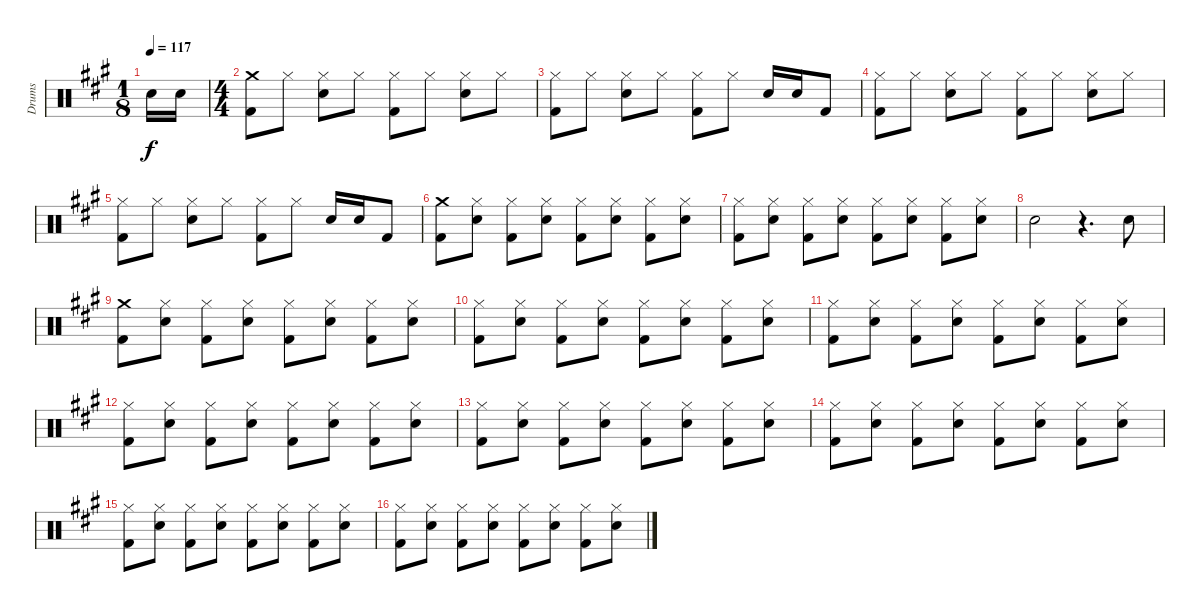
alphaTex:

\track ("Drums" "Drums") {instrument percussion}
\staff {score}
\articulation defaults
\ts (1 8)
\tempo 117
\clef neutral
\ks a "Snare (hit) 2".16{dy f} "Snare (hit) 2".16
|
\ts (4 4)
("Crash medium (hit)" "Kick (hit) 2").8 "Hi-Hat (closed)".8 ("Hi-Hat (closed)" "Snare (hit) 2").8 "Hi-Hat (closed)".8 ("Hi-Hat (closed)" "Kick (hit) 2").8 "Hi-Hat (closed)".8 ("Hi-Hat (closed)" "Snare (hit) 2").8 "Hi-Hat (closed)".8 |
("Hi-Hat (closed)" "Kick (hit) 2").8 "Hi-Hat (closed)".8 ("Hi-Hat (closed)" "Snare (hit) 2").8 "Hi-Hat (closed)".8 ("Hi-Hat (closed)" "Kick (hit) 2").8 "Hi-Hat (closed)".8 "Snare (hit) 2".16 "Snare (hit) 2".16 "Kick (hit) 2".8 |
("Hi-Hat (closed)" "Kick (hit) 2").8 "Hi-Hat (closed)".8 ("Hi-Hat (closed)" "Snare (hit) 2").8 "Hi-Hat (closed)".8 ("Hi-Hat (closed)" "Kick (hit) 2").8 "Hi-Hat (closed)".8 ("Hi-Hat (closed)" "Snare (hit) 2").8 "Hi-Hat (closed)".8 |
("Hi-Hat (closed)" "Kick (hit) 2").8 "Hi-Hat (closed)".8 ("Hi-Hat (closed)" "Snare (hit) 2").8 "Hi-Hat (closed)".8 ("Hi-Hat (closed)" "Kick (hit) 2").8 "Hi-Hat (closed)".8 "Snare (hit) 2".16 "Snare (hit) 2".16 "Kick (hit) 2".8 |
("Crash medium (hit)" "Kick (hit) 2").8 ("Hi-Hat (closed)" "Snare (hit) 2").8 ("Hi-Hat (closed)" "Kick (hit) 2").8 ("Hi-Hat (closed)" "Snare (hit) 2").8 ("Hi-Hat (closed)" "Kick (hit) 2").8 ("Hi-Hat (closed)" "Snare (hit) 2").8 ("Hi-Hat (closed)" "Kick (hit) 2").8 ("Hi-Hat (closed)" "Snare (hit) 2").8 |
("Hi-Hat (closed)" "Kick (hit) 2").8 ("Hi-Hat (closed)" "Snare (hit) 2").8 ("Hi-Hat (closed)" "Kick (hit) 2").8 ("Hi-Hat (closed)" "Snare (hit) 2").8 ("Hi-Hat (closed)" "Kick (hit) 2").8 ("Hi-Hat (closed)" "Snare (hit) 2").8 ("Hi-Hat (closed)" "Kick (hit) 2").8 ("Hi-Hat (closed)" "Snare (hit) 2").8 |
"Snare (hit) 2".2 r.4{d} "Snare (hit) 2".8 |
("Crash medium (hit)" "Kick (hit) 2").8 ("Hi-Hat (closed)" "Snare (hit) 2").8 ("Hi-Hat (closed)" "Kick (hit) 2").8 ("Hi-Hat (closed)" "Snare (hit) 2").8 ("Hi-Hat (closed)" "Kick (hit) 2").8 ("Hi-Hat (closed)" "Snare (hit) 2").8 ("Hi-Hat (closed)" "Kick (hit) 2").8 ("Hi-Hat (closed)" "Snare (hit) 2").8 |
("Hi-Hat (closed)" "Kick (hit) 2").8 ("Hi-Hat (closed)" "Snare (hit) 2").8 ("Hi-Hat (closed)" "Kick (hit) 2").8 ("Hi-Hat (closed)" "Snare (hit) 2").8 ("Hi-Hat (closed)" "Kick (hit) 2").8 ("Hi-Hat (closed)" "Snare (hit) 2").8 ("Hi-Hat (closed)" "Kick (hit) 2").8 ("Hi-Hat (closed)" "Snare (hit) 2").8 |
("Hi-Hat (closed)" "Kick (hit) 2").8 ("Hi-Hat (closed)" "Snare (hit) 2").8 ("Hi-Hat (closed)" "Kick (hit) 2").8 ("Hi-Hat (closed)" "Snare (hit) 2").8 ("Hi-Hat (closed)" "Kick (hit) 2").8 ("Hi-Hat (closed)" "Snare (hit) 2").8 ("Hi-Hat (closed)" "Kick (hit) 2").8 ("Hi-Hat (closed)" "Snare (hit) 2").8 |
("Hi-Hat (closed)" "Kick (hit) 2").8 ("Hi-Hat (closed)" "Snare (hit) 2").8 ("Hi-Hat (closed)" "Kick (hit) 2").8 ("Hi-Hat (closed)" "Snare (hit) 2").8 ("Hi-Hat (closed)" "Kick (hit) 2").8 ("Hi-Hat (closed)" "Snare (hit) 2").8 ("Hi-Hat (closed)" "Kick (hit) 2").8 ("Hi-Hat (closed)" "Snare (hit) 2").8 |
("Hi-Hat (closed)" "Kick (hit) 2").8 ("Hi-Hat (closed)" "Snare (hit) 2").8 ("Hi-Hat (closed)" "Kick (hit) 2").8 ("Hi-Hat (closed)" "Snare (hit) 2").8 ("Hi-Hat (closed)" "Kick (hit) 2").8 ("Hi-Hat (closed)" "Snare (hit) 2").8 ("Hi-Hat (closed)" "Kick (hit) 2").8 ("Hi-Hat (closed)" "Snare (hit) 2").8 |
("Hi-Hat (closed)" "Kick (hit) 2").8 ("Hi-Hat (closed)" "Snare (hit) 2").8 ("Hi-Hat (closed)" "Kick (hit) 2").8 ("Hi-Hat (closed)" "Snare (hit) 2").8 ("Hi-Hat (closed)" "Kick (hit) 2").8 ("Hi-Hat (closed)" "Snare (hit) 2").8 ("Hi-Hat (closed)" "Kick (hit) 2").8 ("Hi-Hat (closed)" "Snare (hit) 2").8 |
("Hi-Hat (closed)" "Kick (hit) 2").8 ("Hi-Hat (closed)" "Snare (hit) 2").8 ("Hi-Hat (closed)" "Kick (hit) 2").8 ("Hi-Hat (closed)" "Snare (hit) 2").8 ("Hi-Hat (closed)" "Kick (hit) 2").8 ("Hi-Hat (closed)" "Snare (hit) 2").8 ("Hi-Hat (closed)" "Kick (hit) 2").8 ("Hi-Hat (closed)" "Snare (hit) 2").8 |
("Hi-Hat (closed)" "Kick (hit) 2").8 ("Hi-Hat (closed)" "Snare (hit) 2").8 ("Hi-Hat (closed)" "Kick (hit) 2").8 ("Hi-Hat (closed)" "Snare (hit) 2").8 ("Hi-Hat (closed)" "Kick (hit) 2").8 ("Hi-Hat (closed)" "Snare (hit) 2").8 ("Hi-Hat (closed)" "Kick (hit) 2").8 ("Hi-Hat (closed)" "Snare (hit) 2").8
